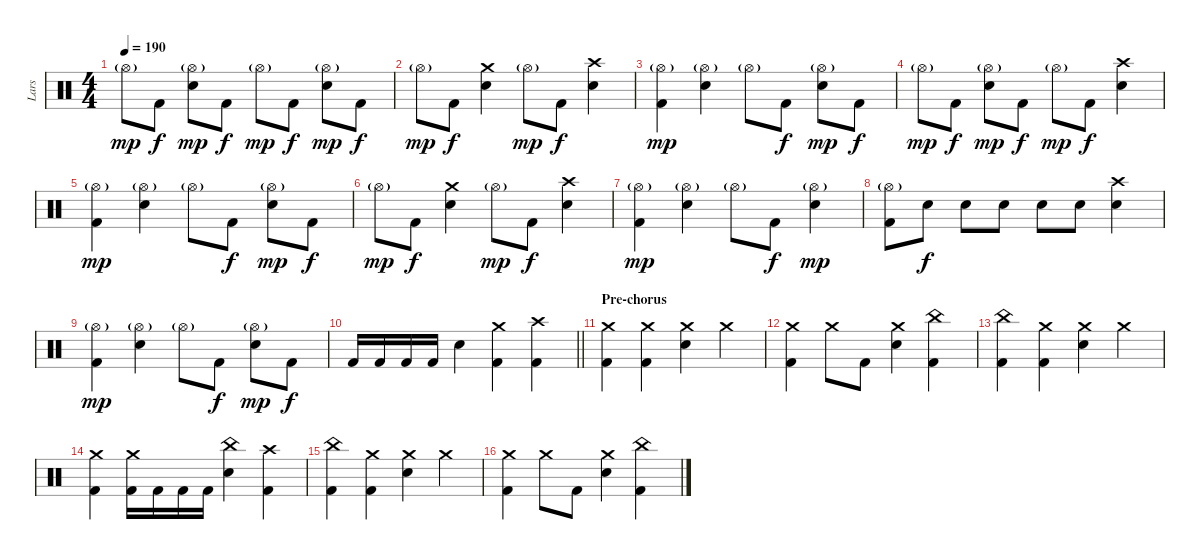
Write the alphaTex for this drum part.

\track ("Lars" "Lars") {instrument percussion}
\staff {score}
\articulation defaults
\ts (4 4)
\tempo 190
\clef neutral
\ks c "Hi-Hat (open)"{g}.8{dy mp} "Kick (hit) 2".8{dy f}
("Hi-Hat (open)"{g} "Electric Snare (hit)").8{dy mp} "Kick (hit) 2".8{dy f} "Hi-Hat (open)"{g}.8{dy mp} "Kick (hit) 2".8{dy f} ("Hi-Hat (open)"{g} "Electric Snare (hit)").8{dy mp} "Kick (hit) 2".8{dy f} |
"Hi-Hat (open)"{g}.8{dy mp} "Kick (hit) 2".8{dy f} ("Crash medium (hit)" "Electric Snare (hit)").4 "Hi-Hat (open)"{g}.8{dy mp} "Kick (hit) 2".8{dy f} ("Crash high (hit)" "Electric Snare (hit)").4 |
("Hi-Hat (open)"{g} "Kick (hit) 2").4{dy mp} ("Hi-Hat (open)"{g} "Electric Snare (hit)").4 "Hi-Hat (open)"{g}.8 "Kick (hit) 2".8{dy f} ("Hi-Hat (open)"{g} "Electric Snare (hit)").8{dy mp} "Kick (hit) 2".8{dy f} |
"Hi-Hat (open)"{g}.8{dy mp} "Kick (hit) 2".8{dy f} ("Hi-Hat (open)"{g} "Electric Snare (hit)").8{dy mp} "Kick (hit) 2".8{dy f} "Hi-Hat (open)"{g}.8{dy mp} "Kick (hit) 2".8{dy f} ("Crash high (hit)" "Electric Snare (hit)").4 |
("Hi-Hat (open)"{g} "Kick (hit) 2").4{dy mp} ("Hi-Hat (open)"{g} "Electric Snare (hit)").4 "Hi-Hat (open)"{g}.8 "Kick (hit) 2".8{dy f} ("Hi-Hat (open)"{g} "Electric Snare (hit)").8{dy mp} "Kick (hit) 2".8{dy f} |
"Hi-Hat (open)"{g}.8{dy mp} "Kick (hit) 2".8{dy f} ("Crash medium (hit)" "Electric Snare (hit)").4 "Hi-Hat (open)"{g}.8{dy mp} "Kick (hit) 2".8{dy f} ("Crash high (hit)" "Electric Snare (hit)").4 |
("Hi-Hat (open)"{g} "Kick (hit) 2").4{dy mp} ("Hi-Hat (open)"{g} "Electric Snare (hit)").4 "Hi-Hat (open)"{g}.8 "Kick (hit) 2".8{dy f} ("Hi-Hat (open)"{g} "Electric Snare (hit)").4{dy mp} |
("Hi-Hat (open)"{g} "Kick (hit) 2").8 "Electric Snare (hit)".8{dy f} "Electric Snare (hit)".8 "Electric Snare (hit)".8 "Electric Snare (hit)".8 "Electric Snare (hit)".8 ("Crash high (hit)" "Electric Snare (hit)").4 |
("Hi-Hat (open)"{g} "Kick (hit) 2").4{dy mp} ("Hi-Hat (open)"{g} "Electric Snare (hit)").4 "Hi-Hat (open)"{g}.8 "Kick (hit) 2".8{dy f} ("Hi-Hat (open)"{g} "Electric Snare (hit)").8{dy mp} "Kick (hit) 2".8{dy f} |
\barLineRight lightlight "Kick (hit) 2".16 "Kick (hit) 2".16 "Kick (hit) 2".16 "Kick (hit) 2".16 "Electric Snare (hit)".4
("Crash medium (hit)" "Kick (hit) 2").4 ("Crash high (hit)" "Kick (hit) 2").4 |
\section ("" "Pre-chorus")
("Crash medium (hit)" "Kick (hit) 2").4 ("Crash medium (hit)" "Kick (hit) 2").4 ("Crash medium (hit)" "Electric Snare (hit)").4 "Crash medium (hit)".4 |
("Crash medium (hit)" "Kick (hit) 2").4 "Crash medium (hit)".8 "Kick (hit) 2".8 ("Crash medium (hit)" "Electric Snare (hit)").4 ("China (hit)" "Kick (hit) 2").4 |
("China (hit)" "Kick (hit) 2").4 ("Crash medium (hit)" "Kick (hit) 2").4 ("Crash medium (hit)" "Electric Snare (hit)").4 "Crash medium (hit)".4 |
("Crash medium (hit)" "Kick (hit) 2").4 ("Crash medium (hit)" "Kick (hit) 2").16 "Kick (hit) 2".16 "Kick (hit) 2".16 "Kick (hit) 2".16 ("China (hit)" "Electric Snare (hit)").4 ("Crash high (hit)" "Kick (hit) 2").4 |
("China (hit)" "Kick (hit) 2").4 ("Crash medium (hit)" "Kick (hit) 2").4 ("Crash medium (hit)" "Electric Snare (hit)").4 "Crash medium (hit)".4 |
("Crash medium (hit)" "Kick (hit) 2").4 "Crash medium (hit)".8 "Kick (hit) 2".8 ("Crash medium (hit)" "Electric Snare (hit)").4 ("China (hit)" "Kick (hit) 2").4
